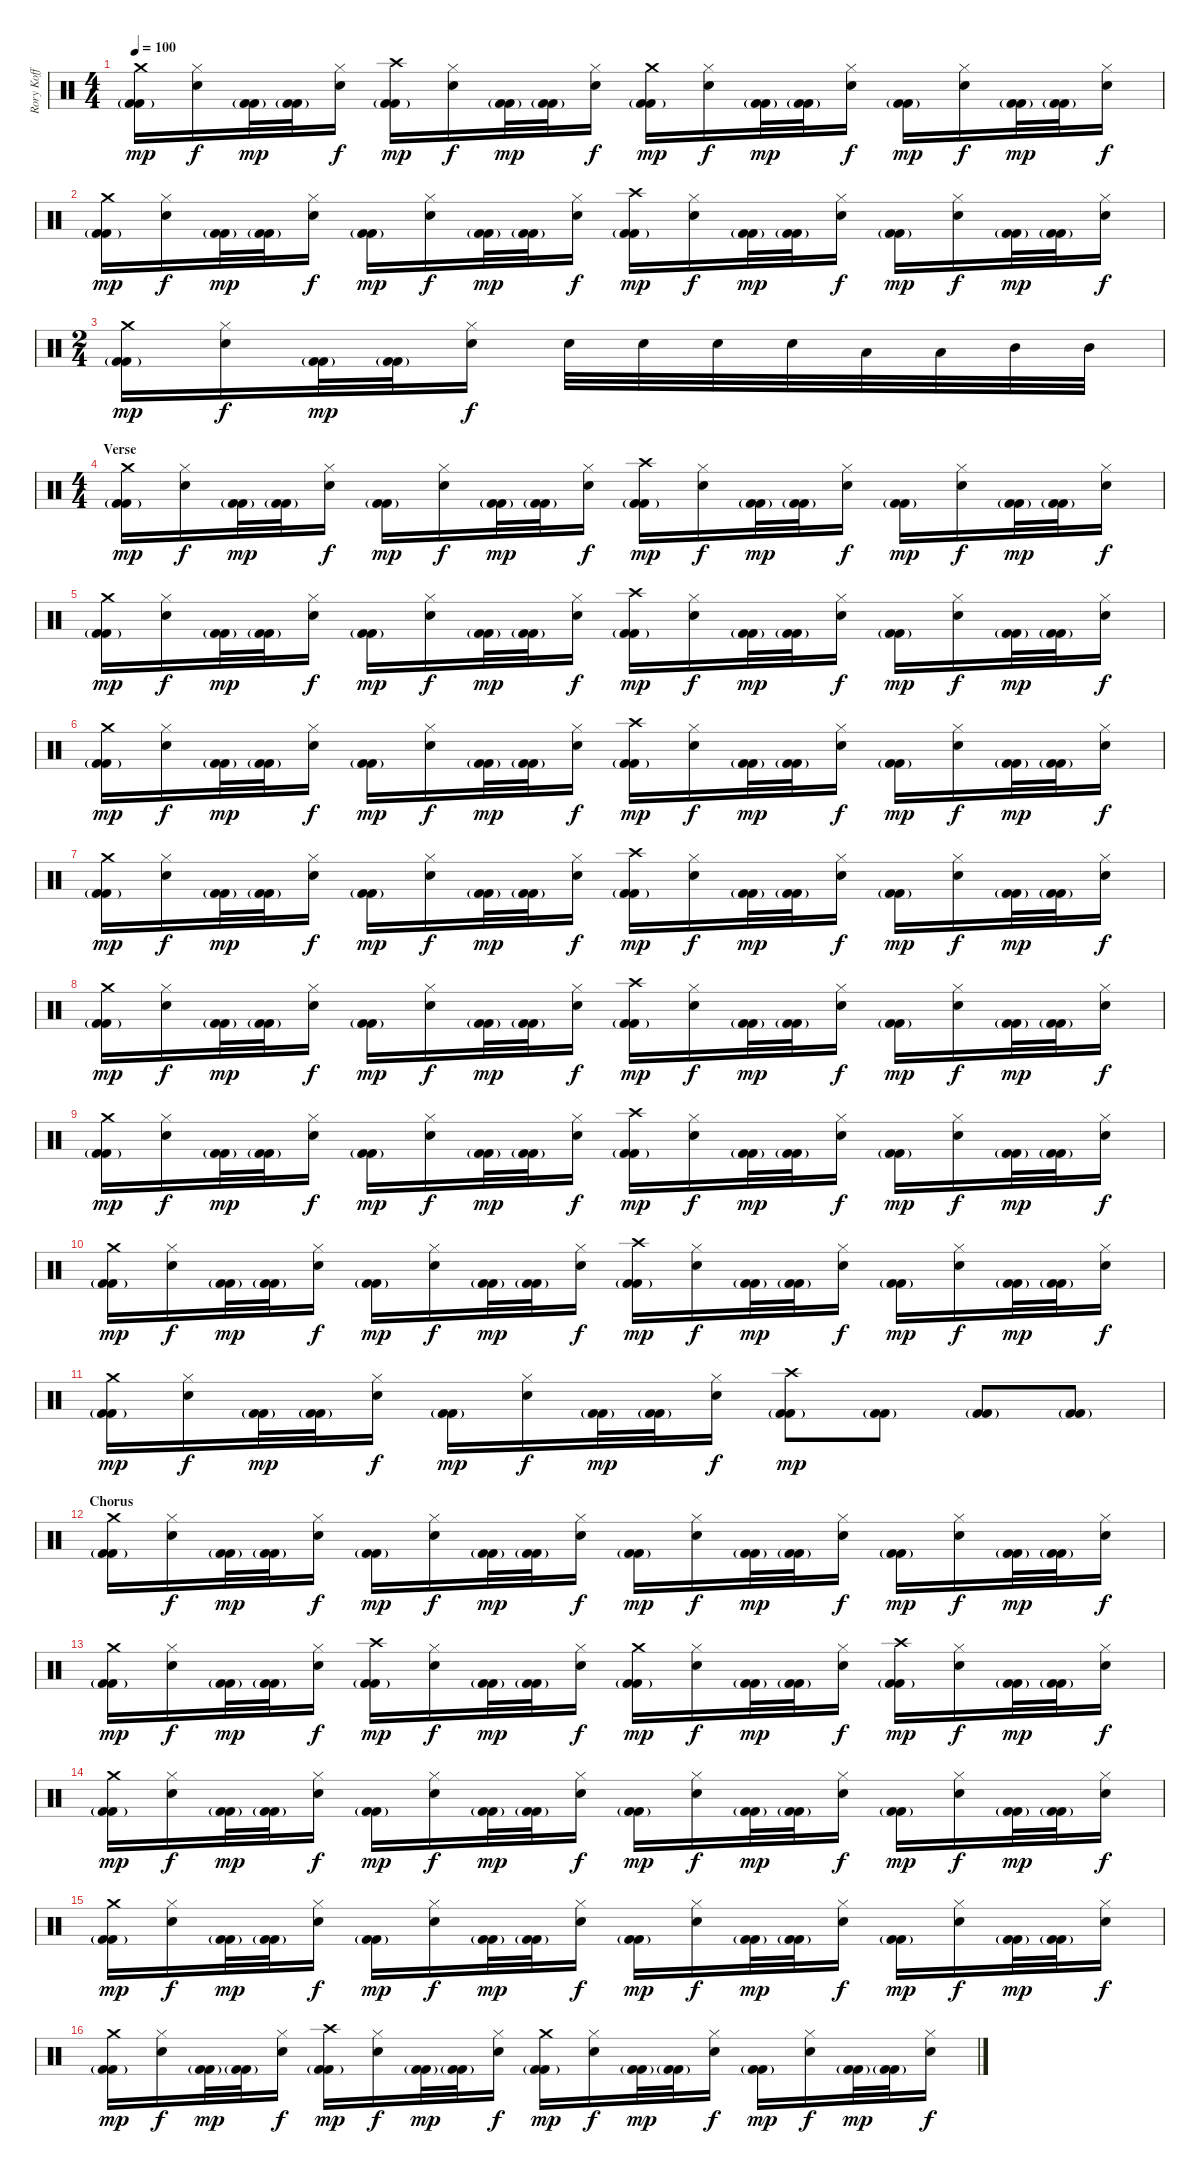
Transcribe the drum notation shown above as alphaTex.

\track ("Rory Koff" "Rory Koff") {instrument percussion}
\staff {score}
\articulation defaults
\ts (4 4)
\tempo 100
\clef neutral
\ks c
("Crash medium (hit)" "Kick (hit) 2"{g} "Kick (hit) 2").16{dy mp} ("Hi-Hat (closed)" "Snare (hit) 2").16{dy f} ("Kick (hit) 2"{g} "Kick (hit) 2").32{dy mp} ("Kick (hit) 2"{g} "Kick (hit) 2").32 ("Hi-Hat (closed)" "Snare (hit) 2").16{dy f} ("Crash high (hit)" "Kick (hit) 2"{g} "Kick (hit) 2").16{dy mp} ("Hi-Hat (closed)" "Snare (hit) 2").16{dy f} ("Kick (hit) 2"{g} "Kick (hit) 2").32{dy mp} ("Kick (hit) 2"{g} "Kick (hit) 2").32 ("Hi-Hat (closed)" "Snare (hit) 2").16{dy f} ("Crash medium (hit)" "Kick (hit) 2"{g} "Kick (hit) 2").16{dy mp} ("Hi-Hat (closed)" "Snare (hit) 2").16{dy f} ("Kick (hit) 2"{g} "Kick (hit) 2").32{dy mp} ("Kick (hit) 2"{g} "Kick (hit) 2").32 ("Hi-Hat (closed)" "Snare (hit) 2").16{dy f} ("Kick (hit) 2"{g} "Kick (hit) 2").16{dy mp} ("Hi-Hat (closed)" "Snare (hit) 2").16{dy f} ("Kick (hit) 2"{g} "Kick (hit) 2").32{dy mp} ("Kick (hit) 2"{g} "Kick (hit) 2").32 ("Hi-Hat (closed)" "Snare (hit) 2").16{dy f} |
("Crash medium (hit)" "Kick (hit) 2"{g} "Kick (hit) 2").16{dy mp} ("Hi-Hat (closed)" "Snare (hit) 2").16{dy f} ("Kick (hit) 2"{g} "Kick (hit) 2").32{dy mp} ("Kick (hit) 2"{g} "Kick (hit) 2").32 ("Hi-Hat (closed)" "Snare (hit) 2").16{dy f} ("Kick (hit) 2"{g} "Kick (hit) 2").16{dy mp} ("Hi-Hat (closed)" "Snare (hit) 2").16{dy f} ("Kick (hit) 2"{g} "Kick (hit) 2").32{dy mp} ("Kick (hit) 2"{g} "Kick (hit) 2").32 ("Hi-Hat (closed)" "Snare (hit) 2").16{dy f} ("Crash high (hit)" "Kick (hit) 2"{g} "Kick (hit) 2").16{dy mp} ("Hi-Hat (closed)" "Snare (hit) 2").16{dy f} ("Kick (hit) 2"{g} "Kick (hit) 2").32{dy mp} ("Kick (hit) 2"{g} "Kick (hit) 2").32 ("Hi-Hat (closed)" "Snare (hit) 2").16{dy f} ("Kick (hit) 2"{g} "Kick (hit) 2").16{dy mp} ("Hi-Hat (closed)" "Snare (hit) 2").16{dy f} ("Kick (hit) 2"{g} "Kick (hit) 2").32{dy mp} ("Kick (hit) 2"{g} "Kick (hit) 2").32 ("Hi-Hat (closed)" "Snare (hit) 2").16{dy f} |
\ts (2 4)
("Crash medium (hit)" "Kick (hit) 2"{g} "Kick (hit) 2").16{dy mp} ("Hi-Hat (closed)" "Snare (hit) 2").16{dy f} ("Kick (hit) 2"{g} "Kick (hit) 2").32{dy mp} ("Kick (hit) 2"{g} "Kick (hit) 2").32 ("Hi-Hat (closed)" "Snare (hit) 2").16{dy f} "Snare (hit) 2".32 "Snare (hit) 2".32 "Snare (hit) 2".32 "Snare (hit) 2".32 "Low Tom (hit)".32 "Low Tom (hit)".32 "Mid Tom (hit)".32 "Mid Tom (hit)".32 |
\ts (4 4)
\section ("" "Verse")
("Crash medium (hit)" "Kick (hit) 2"{g} "Kick (hit) 2").16{dy mp} ("Hi-Hat (closed)" "Snare (hit) 2").16{dy f} ("Kick (hit) 2"{g} "Kick (hit) 2").32{dy mp} ("Kick (hit) 2"{g} "Kick (hit) 2").32 ("Hi-Hat (closed)" "Snare (hit) 2").16{dy f} ("Kick (hit) 2"{g} "Kick (hit) 2").16{dy mp} ("Hi-Hat (closed)" "Snare (hit) 2").16{dy f} ("Kick (hit) 2"{g} "Kick (hit) 2").32{dy mp} ("Kick (hit) 2"{g} "Kick (hit) 2").32 ("Hi-Hat (closed)" "Snare (hit) 2").16{dy f} ("Crash high (hit)" "Kick (hit) 2"{g} "Kick (hit) 2").16{dy mp} ("Hi-Hat (closed)" "Snare (hit) 2").16{dy f} ("Kick (hit) 2"{g} "Kick (hit) 2").32{dy mp} ("Kick (hit) 2"{g} "Kick (hit) 2").32 ("Hi-Hat (closed)" "Snare (hit) 2").16{dy f} ("Kick (hit) 2"{g} "Kick (hit) 2").16{dy mp} ("Hi-Hat (closed)" "Snare (hit) 2").16{dy f} ("Kick (hit) 2"{g} "Kick (hit) 2").32{dy mp} ("Kick (hit) 2"{g} "Kick (hit) 2").32 ("Hi-Hat (closed)" "Snare (hit) 2").16{dy f} |
("Crash medium (hit)" "Kick (hit) 2"{g} "Kick (hit) 2").16{dy mp} ("Hi-Hat (closed)" "Snare (hit) 2").16{dy f} ("Kick (hit) 2"{g} "Kick (hit) 2").32{dy mp} ("Kick (hit) 2"{g} "Kick (hit) 2").32 ("Hi-Hat (closed)" "Snare (hit) 2").16{dy f} ("Kick (hit) 2"{g} "Kick (hit) 2").16{dy mp} ("Hi-Hat (closed)" "Snare (hit) 2").16{dy f} ("Kick (hit) 2"{g} "Kick (hit) 2").32{dy mp} ("Kick (hit) 2"{g} "Kick (hit) 2").32 ("Hi-Hat (closed)" "Snare (hit) 2").16{dy f} ("Crash high (hit)" "Kick (hit) 2"{g} "Kick (hit) 2").16{dy mp} ("Hi-Hat (closed)" "Snare (hit) 2").16{dy f} ("Kick (hit) 2"{g} "Kick (hit) 2").32{dy mp} ("Kick (hit) 2"{g} "Kick (hit) 2").32 ("Hi-Hat (closed)" "Snare (hit) 2").16{dy f} ("Kick (hit) 2"{g} "Kick (hit) 2").16{dy mp} ("Hi-Hat (closed)" "Snare (hit) 2").16{dy f} ("Kick (hit) 2"{g} "Kick (hit) 2").32{dy mp} ("Kick (hit) 2"{g} "Kick (hit) 2").32 ("Hi-Hat (closed)" "Snare (hit) 2").16{dy f} |
("Crash medium (hit)" "Kick (hit) 2"{g} "Kick (hit) 2").16{dy mp} ("Hi-Hat (closed)" "Snare (hit) 2").16{dy f} ("Kick (hit) 2"{g} "Kick (hit) 2").32{dy mp} ("Kick (hit) 2"{g} "Kick (hit) 2").32 ("Hi-Hat (closed)" "Snare (hit) 2").16{dy f} ("Kick (hit) 2"{g} "Kick (hit) 2").16{dy mp} ("Hi-Hat (closed)" "Snare (hit) 2").16{dy f} ("Kick (hit) 2"{g} "Kick (hit) 2").32{dy mp} ("Kick (hit) 2"{g} "Kick (hit) 2").32 ("Hi-Hat (closed)" "Snare (hit) 2").16{dy f} ("Crash high (hit)" "Kick (hit) 2"{g} "Kick (hit) 2").16{dy mp} ("Hi-Hat (closed)" "Snare (hit) 2").16{dy f} ("Kick (hit) 2"{g} "Kick (hit) 2").32{dy mp} ("Kick (hit) 2"{g} "Kick (hit) 2").32 ("Hi-Hat (closed)" "Snare (hit) 2").16{dy f} ("Kick (hit) 2"{g} "Kick (hit) 2").16{dy mp} ("Hi-Hat (closed)" "Snare (hit) 2").16{dy f} ("Kick (hit) 2"{g} "Kick (hit) 2").32{dy mp} ("Kick (hit) 2"{g} "Kick (hit) 2").32 ("Hi-Hat (closed)" "Snare (hit) 2").16{dy f} |
("Crash medium (hit)" "Kick (hit) 2"{g} "Kick (hit) 2").16{dy mp} ("Hi-Hat (closed)" "Snare (hit) 2").16{dy f} ("Kick (hit) 2"{g} "Kick (hit) 2").32{dy mp} ("Kick (hit) 2"{g} "Kick (hit) 2").32 ("Hi-Hat (closed)" "Snare (hit) 2").16{dy f} ("Kick (hit) 2"{g} "Kick (hit) 2").16{dy mp} ("Hi-Hat (closed)" "Snare (hit) 2").16{dy f} ("Kick (hit) 2"{g} "Kick (hit) 2").32{dy mp} ("Kick (hit) 2"{g} "Kick (hit) 2").32 ("Hi-Hat (closed)" "Snare (hit) 2").16{dy f} ("Crash high (hit)" "Kick (hit) 2"{g} "Kick (hit) 2").16{dy mp} ("Hi-Hat (closed)" "Snare (hit) 2").16{dy f} ("Kick (hit) 2"{g} "Kick (hit) 2").32{dy mp} ("Kick (hit) 2"{g} "Kick (hit) 2").32 ("Hi-Hat (closed)" "Snare (hit) 2").16{dy f} ("Kick (hit) 2"{g} "Kick (hit) 2").16{dy mp} ("Hi-Hat (closed)" "Snare (hit) 2").16{dy f} ("Kick (hit) 2"{g} "Kick (hit) 2").32{dy mp} ("Kick (hit) 2"{g} "Kick (hit) 2").32 ("Hi-Hat (closed)" "Snare (hit) 2").16{dy f} |
("Crash medium (hit)" "Kick (hit) 2"{g} "Kick (hit) 2").16{dy mp} ("Hi-Hat (closed)" "Snare (hit) 2").16{dy f} ("Kick (hit) 2"{g} "Kick (hit) 2").32{dy mp} ("Kick (hit) 2"{g} "Kick (hit) 2").32 ("Hi-Hat (closed)" "Snare (hit) 2").16{dy f} ("Kick (hit) 2"{g} "Kick (hit) 2").16{dy mp} ("Hi-Hat (closed)" "Snare (hit) 2").16{dy f} ("Kick (hit) 2"{g} "Kick (hit) 2").32{dy mp} ("Kick (hit) 2"{g} "Kick (hit) 2").32 ("Hi-Hat (closed)" "Snare (hit) 2").16{dy f} ("Crash high (hit)" "Kick (hit) 2"{g} "Kick (hit) 2").16{dy mp} ("Hi-Hat (closed)" "Snare (hit) 2").16{dy f} ("Kick (hit) 2"{g} "Kick (hit) 2").32{dy mp} ("Kick (hit) 2"{g} "Kick (hit) 2").32 ("Hi-Hat (closed)" "Snare (hit) 2").16{dy f} ("Kick (hit) 2"{g} "Kick (hit) 2").16{dy mp} ("Hi-Hat (closed)" "Snare (hit) 2").16{dy f} ("Kick (hit) 2"{g} "Kick (hit) 2").32{dy mp} ("Kick (hit) 2"{g} "Kick (hit) 2").32 ("Hi-Hat (closed)" "Snare (hit) 2").16{dy f} |
("Crash medium (hit)" "Kick (hit) 2"{g} "Kick (hit) 2").16{dy mp} ("Hi-Hat (closed)" "Snare (hit) 2").16{dy f} ("Kick (hit) 2"{g} "Kick (hit) 2").32{dy mp} ("Kick (hit) 2"{g} "Kick (hit) 2").32 ("Hi-Hat (closed)" "Snare (hit) 2").16{dy f} ("Kick (hit) 2"{g} "Kick (hit) 2").16{dy mp} ("Hi-Hat (closed)" "Snare (hit) 2").16{dy f} ("Kick (hit) 2"{g} "Kick (hit) 2").32{dy mp} ("Kick (hit) 2"{g} "Kick (hit) 2").32 ("Hi-Hat (closed)" "Snare (hit) 2").16{dy f} ("Crash high (hit)" "Kick (hit) 2"{g} "Kick (hit) 2").16{dy mp} ("Hi-Hat (closed)" "Snare (hit) 2").16{dy f} ("Kick (hit) 2"{g} "Kick (hit) 2").32{dy mp} ("Kick (hit) 2"{g} "Kick (hit) 2").32 ("Hi-Hat (closed)" "Snare (hit) 2").16{dy f} ("Kick (hit) 2"{g} "Kick (hit) 2").16{dy mp} ("Hi-Hat (closed)" "Snare (hit) 2").16{dy f} ("Kick (hit) 2"{g} "Kick (hit) 2").32{dy mp} ("Kick (hit) 2"{g} "Kick (hit) 2").32 ("Hi-Hat (closed)" "Snare (hit) 2").16{dy f} |
("Crash medium (hit)" "Kick (hit) 2"{g} "Kick (hit) 2").16{dy mp} ("Hi-Hat (closed)" "Snare (hit) 2").16{dy f} ("Kick (hit) 2"{g} "Kick (hit) 2").32{dy mp} ("Kick (hit) 2"{g} "Kick (hit) 2").32 ("Hi-Hat (closed)" "Snare (hit) 2").16{dy f} ("Kick (hit) 2"{g} "Kick (hit) 2").16{dy mp} ("Hi-Hat (closed)" "Snare (hit) 2").16{dy f} ("Kick (hit) 2"{g} "Kick (hit) 2").32{dy mp} ("Kick (hit) 2"{g} "Kick (hit) 2").32 ("Hi-Hat (closed)" "Snare (hit) 2").16{dy f} ("Crash high (hit)" "Kick (hit) 2"{g} "Kick (hit) 2").16{dy mp} ("Hi-Hat (closed)" "Snare (hit) 2").16{dy f} ("Kick (hit) 2"{g} "Kick (hit) 2").32{dy mp} ("Kick (hit) 2"{g} "Kick (hit) 2").32 ("Hi-Hat (closed)" "Snare (hit) 2").16{dy f} ("Kick (hit) 2"{g} "Kick (hit) 2").16{dy mp} ("Hi-Hat (closed)" "Snare (hit) 2").16{dy f} ("Kick (hit) 2"{g} "Kick (hit) 2").32{dy mp} ("Kick (hit) 2"{g} "Kick (hit) 2").32 ("Hi-Hat (closed)" "Snare (hit) 2").16{dy f} |
("Crash medium (hit)" "Kick (hit) 2"{g} "Kick (hit) 2").16{dy mp} ("Hi-Hat (closed)" "Snare (hit) 2").16{dy f} ("Kick (hit) 2"{g} "Kick (hit) 2").32{dy mp} ("Kick (hit) 2"{g} "Kick (hit) 2").32 ("Hi-Hat (closed)" "Snare (hit) 2").16{dy f} ("Kick (hit) 2"{g} "Kick (hit) 2").16{dy mp} ("Hi-Hat (closed)" "Snare (hit) 2").16{dy f} ("Kick (hit) 2"{g} "Kick (hit) 2").32{dy mp} ("Kick (hit) 2"{g} "Kick (hit) 2").32 ("Hi-Hat (closed)" "Snare (hit) 2").16{dy f} ("Crash high (hit)" "Kick (hit) 2"{g} "Kick (hit) 2").8{dy mp} ("Kick (hit) 2"{g} "Kick (hit) 2").8 ("Kick (hit) 2"{g} "Kick (hit) 2").8 ("Kick (hit) 2"{g} "Kick (hit) 2").8 |
\section ("" "Chorus")
("Crash medium (hit)" "Kick (hit) 2"{g} "Kick (hit) 2").16 ("Hi-Hat (closed)" "Snare (hit) 2").16{dy f} ("Kick (hit) 2"{g} "Kick (hit) 2").32{dy mp} ("Kick (hit) 2"{g} "Kick (hit) 2").32 ("Hi-Hat (closed)" "Snare (hit) 2").16{dy f} ("Kick (hit) 2"{g} "Kick (hit) 2").16{dy mp} ("Hi-Hat (closed)" "Snare (hit) 2").16{dy f} ("Kick (hit) 2"{g} "Kick (hit) 2").32{dy mp} ("Kick (hit) 2"{g} "Kick (hit) 2").32 ("Hi-Hat (closed)" "Snare (hit) 2").16{dy f} ("Kick (hit) 2"{g} "Kick (hit) 2").16{dy mp} ("Hi-Hat (closed)" "Snare (hit) 2").16{dy f} ("Kick (hit) 2"{g} "Kick (hit) 2").32{dy mp} ("Kick (hit) 2"{g} "Kick (hit) 2").32 ("Hi-Hat (closed)" "Snare (hit) 2").16{dy f} ("Kick (hit) 2"{g} "Kick (hit) 2").16{dy mp} ("Hi-Hat (closed)" "Snare (hit) 2").16{dy f} ("Kick (hit) 2"{g} "Kick (hit) 2").32{dy mp} ("Kick (hit) 2"{g} "Kick (hit) 2").32 ("Hi-Hat (closed)" "Snare (hit) 2").16{dy f} |
("Crash medium (hit)" "Kick (hit) 2"{g} "Kick (hit) 2").16{dy mp} ("Hi-Hat (closed)" "Snare (hit) 2").16{dy f} ("Kick (hit) 2"{g} "Kick (hit) 2").32{dy mp} ("Kick (hit) 2"{g} "Kick (hit) 2").32 ("Hi-Hat (closed)" "Snare (hit) 2").16{dy f} ("Crash high (hit)" "Kick (hit) 2"{g} "Kick (hit) 2").16{dy mp} ("Hi-Hat (closed)" "Snare (hit) 2").16{dy f} ("Kick (hit) 2"{g} "Kick (hit) 2").32{dy mp} ("Kick (hit) 2"{g} "Kick (hit) 2").32 ("Hi-Hat (closed)" "Snare (hit) 2").16{dy f} ("Crash medium (hit)" "Kick (hit) 2"{g} "Kick (hit) 2").16{dy mp} ("Hi-Hat (closed)" "Snare (hit) 2").16{dy f} ("Kick (hit) 2"{g} "Kick (hit) 2").32{dy mp} ("Kick (hit) 2"{g} "Kick (hit) 2").32 ("Hi-Hat (closed)" "Snare (hit) 2").16{dy f} ("Crash high (hit)" "Kick (hit) 2"{g} "Kick (hit) 2").16{dy mp} ("Hi-Hat (closed)" "Snare (hit) 2").16{dy f} ("Kick (hit) 2"{g} "Kick (hit) 2").32{dy mp} ("Kick (hit) 2"{g} "Kick (hit) 2").32 ("Hi-Hat (closed)" "Snare (hit) 2").16{dy f} |
("Crash medium (hit)" "Kick (hit) 2"{g} "Kick (hit) 2").16{dy mp} ("Hi-Hat (closed)" "Snare (hit) 2").16{dy f} ("Kick (hit) 2"{g} "Kick (hit) 2").32{dy mp} ("Kick (hit) 2"{g} "Kick (hit) 2").32 ("Hi-Hat (closed)" "Snare (hit) 2").16{dy f} ("Kick (hit) 2"{g} "Kick (hit) 2").16{dy mp} ("Hi-Hat (closed)" "Snare (hit) 2").16{dy f} ("Kick (hit) 2"{g} "Kick (hit) 2").32{dy mp} ("Kick (hit) 2"{g} "Kick (hit) 2").32 ("Hi-Hat (closed)" "Snare (hit) 2").16{dy f} ("Kick (hit) 2"{g} "Kick (hit) 2").16{dy mp} ("Hi-Hat (closed)" "Snare (hit) 2").16{dy f} ("Kick (hit) 2"{g} "Kick (hit) 2").32{dy mp} ("Kick (hit) 2"{g} "Kick (hit) 2").32 ("Hi-Hat (closed)" "Snare (hit) 2").16{dy f} ("Kick (hit) 2"{g} "Kick (hit) 2").16{dy mp} ("Hi-Hat (closed)" "Snare (hit) 2").16{dy f} ("Kick (hit) 2"{g} "Kick (hit) 2").32{dy mp} ("Kick (hit) 2"{g} "Kick (hit) 2").32 ("Hi-Hat (closed)" "Snare (hit) 2").16{dy f} |
("Crash medium (hit)" "Kick (hit) 2"{g} "Kick (hit) 2").16{dy mp} ("Hi-Hat (closed)" "Snare (hit) 2").16{dy f} ("Kick (hit) 2"{g} "Kick (hit) 2").32{dy mp} ("Kick (hit) 2"{g} "Kick (hit) 2").32 ("Hi-Hat (closed)" "Snare (hit) 2").16{dy f} ("Kick (hit) 2"{g} "Kick (hit) 2").16{dy mp} ("Hi-Hat (closed)" "Snare (hit) 2").16{dy f} ("Kick (hit) 2"{g} "Kick (hit) 2").32{dy mp} ("Kick (hit) 2"{g} "Kick (hit) 2").32 ("Hi-Hat (closed)" "Snare (hit) 2").16{dy f} ("Kick (hit) 2"{g} "Kick (hit) 2").16{dy mp} ("Hi-Hat (closed)" "Snare (hit) 2").16{dy f} ("Kick (hit) 2"{g} "Kick (hit) 2").32{dy mp} ("Kick (hit) 2"{g} "Kick (hit) 2").32 ("Hi-Hat (closed)" "Snare (hit) 2").16{dy f} ("Kick (hit) 2"{g} "Kick (hit) 2").16{dy mp} ("Hi-Hat (closed)" "Snare (hit) 2").16{dy f} ("Kick (hit) 2"{g} "Kick (hit) 2").32{dy mp} ("Kick (hit) 2"{g} "Kick (hit) 2").32 ("Hi-Hat (closed)" "Snare (hit) 2").16{dy f} |
("Crash medium (hit)" "Kick (hit) 2"{g} "Kick (hit) 2").16{dy mp} ("Hi-Hat (closed)" "Snare (hit) 2").16{dy f} ("Kick (hit) 2"{g} "Kick (hit) 2").32{dy mp} ("Kick (hit) 2"{g} "Kick (hit) 2").32 ("Hi-Hat (closed)" "Snare (hit) 2").16{dy f} ("Crash high (hit)" "Kick (hit) 2"{g} "Kick (hit) 2").16{dy mp} ("Hi-Hat (closed)" "Snare (hit) 2").16{dy f} ("Kick (hit) 2"{g} "Kick (hit) 2").32{dy mp} ("Kick (hit) 2"{g} "Kick (hit) 2").32 ("Hi-Hat (closed)" "Snare (hit) 2").16{dy f} ("Crash medium (hit)" "Kick (hit) 2"{g} "Kick (hit) 2").16{dy mp} ("Hi-Hat (closed)" "Snare (hit) 2").16{dy f} ("Kick (hit) 2"{g} "Kick (hit) 2").32{dy mp} ("Kick (hit) 2"{g} "Kick (hit) 2").32 ("Hi-Hat (closed)" "Snare (hit) 2").16{dy f} ("Kick (hit) 2"{g} "Kick (hit) 2").16{dy mp} ("Hi-Hat (closed)" "Snare (hit) 2").16{dy f} ("Kick (hit) 2"{g} "Kick (hit) 2").32{dy mp} ("Kick (hit) 2"{g} "Kick (hit) 2").32 ("Hi-Hat (closed)" "Snare (hit) 2").16{dy f}
